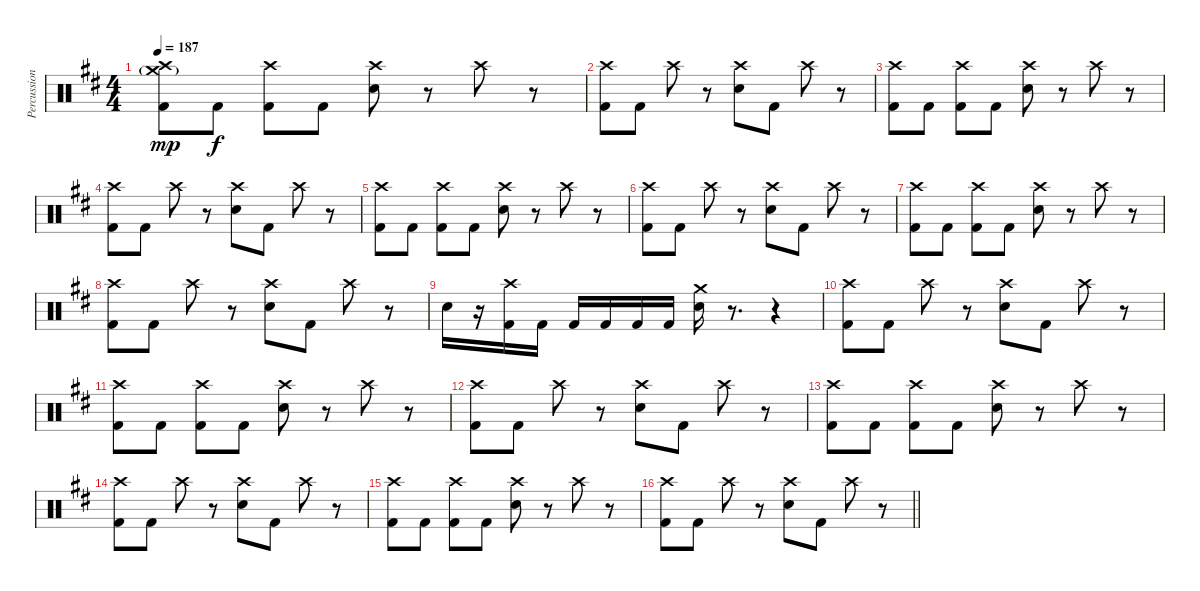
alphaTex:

\track ("Percussion" "Percussion") {instrument percussion}
\staff {score}
\articulation defaults
\ts (4 4)
\tempo 187
\clef neutral
\ks d
("Crash medium (hit)"{g} "Crash high (hit)" "Kick (hit) 2").8{dy mp} "Kick (hit) 2".8{dy f} ("Crash high (hit)" "Kick (hit) 2").8 "Kick (hit) 2".8 ("Crash high (hit)" "Snare (hit) 2").8 r.8 "Crash high (hit)".8 r.8 |
("Crash high (hit)" "Kick (hit) 2").8 "Kick (hit) 2".8 "Crash high (hit)".8 r.8 ("Crash high (hit)" "Snare (hit) 2").8 "Kick (hit) 2".8 "Crash high (hit)".8 r.8 |
("Crash high (hit)" "Kick (hit) 2").8 "Kick (hit) 2".8 ("Crash high (hit)" "Kick (hit) 2").8 "Kick (hit) 2".8 ("Crash high (hit)" "Snare (hit) 2").8 r.8 "Crash high (hit)".8 r.8 |
("Crash high (hit)" "Kick (hit) 2").8 "Kick (hit) 2".8 "Crash high (hit)".8 r.8 ("Crash high (hit)" "Snare (hit) 2").8 "Kick (hit) 2".8 "Crash high (hit)".8 r.8 |
("Crash high (hit)" "Kick (hit) 2").8 "Kick (hit) 2".8 ("Crash high (hit)" "Kick (hit) 2").8 "Kick (hit) 2".8 ("Crash high (hit)" "Snare (hit) 2").8 r.8 "Crash high (hit)".8 r.8 |
("Crash high (hit)" "Kick (hit) 2").8 "Kick (hit) 2".8 "Crash high (hit)".8 r.8 ("Crash high (hit)" "Snare (hit) 2").8 "Kick (hit) 2".8 "Crash high (hit)".8 r.8 |
("Crash high (hit)" "Kick (hit) 2").8 "Kick (hit) 2".8 ("Crash high (hit)" "Kick (hit) 2").8 "Kick (hit) 2".8 ("Crash high (hit)" "Snare (hit) 2").8 r.8 "Crash high (hit)".8 r.8 |
("Crash high (hit)" "Kick (hit) 2").8 "Kick (hit) 2".8 "Crash high (hit)".8 r.8 ("Crash high (hit)" "Snare (hit) 2").8 "Kick (hit) 2".8 "Crash high (hit)".8 r.8 |
"Snare (hit) 2".16 r.16 ("Crash high (hit)" "Kick (hit) 2").16 "Kick (hit) 2".16 "Kick (hit) 2".16 "Kick (hit) 2".16 "Kick (hit) 2".16 "Kick (hit) 2".16 ("Crash medium (hit)" "Snare (hit) 2").16 r.8{d} r.4 |
("Crash high (hit)" "Kick (hit) 2").8 "Kick (hit) 2".8 "Crash high (hit)".8 r.8 ("Crash high (hit)" "Snare (hit) 2").8 "Kick (hit) 2".8 "Crash high (hit)".8 r.8 |
("Crash high (hit)" "Kick (hit) 2").8 "Kick (hit) 2".8 ("Crash high (hit)" "Kick (hit) 2").8 "Kick (hit) 2".8 ("Crash high (hit)" "Snare (hit) 2").8 r.8 "Crash high (hit)".8 r.8 |
("Crash high (hit)" "Kick (hit) 2").8 "Kick (hit) 2".8 "Crash high (hit)".8 r.8 ("Crash high (hit)" "Snare (hit) 2").8 "Kick (hit) 2".8 "Crash high (hit)".8 r.8 |
("Crash high (hit)" "Kick (hit) 2").8 "Kick (hit) 2".8 ("Crash high (hit)" "Kick (hit) 2").8 "Kick (hit) 2".8 ("Crash high (hit)" "Snare (hit) 2").8 r.8 "Crash high (hit)".8 r.8 |
("Crash high (hit)" "Kick (hit) 2").8 "Kick (hit) 2".8 "Crash high (hit)".8 r.8 ("Crash high (hit)" "Snare (hit) 2").8 "Kick (hit) 2".8 "Crash high (hit)".8 r.8 |
("Crash high (hit)" "Kick (hit) 2").8 "Kick (hit) 2".8 ("Crash high (hit)" "Kick (hit) 2").8 "Kick (hit) 2".8 ("Crash high (hit)" "Snare (hit) 2").8 r.8 "Crash high (hit)".8 r.8 |
\barLineRight lightlight
("Crash high (hit)" "Kick (hit) 2").8 "Kick (hit) 2".8 "Crash high (hit)".8 r.8 ("Crash high (hit)" "Snare (hit) 2").8 "Kick (hit) 2".8 "Crash high (hit)".8 r.8
